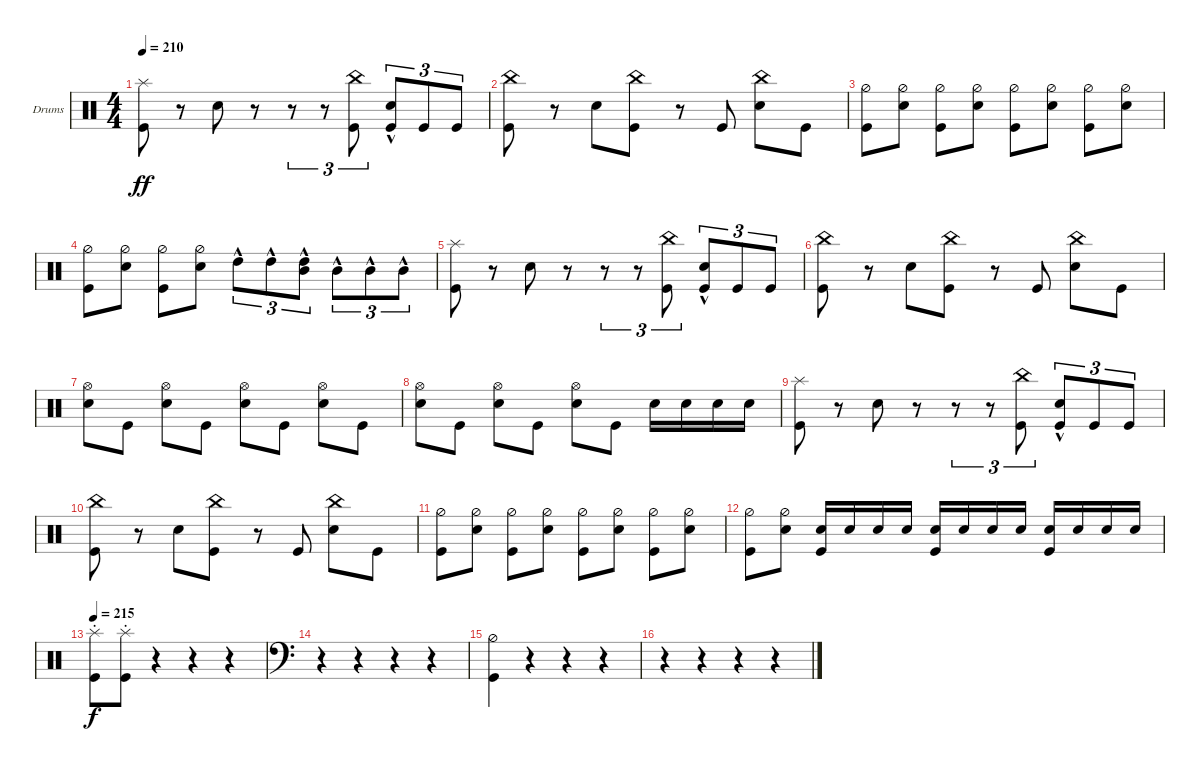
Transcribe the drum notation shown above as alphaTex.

\bracketExtendMode groupsimilarinstruments
\firstSystemTrackNameOrientation horizontal
\otherSystemsTrackNameOrientation horizontal
\track ("Drumkit" "Drums") {instrument percussion}
\staff {score}
\articulation defaults
\ts (4 4)
\tempo 210
\clef neutral
\ks c
("Kick (hit)" "Splash (hit)").8{dy ff} r.8 "Snare (hit) 2".8 r.8 r.8{tu (3 2)} r.8{tu (3 2)} ("Kick (hit)" "China (hit)").8{tu (3 2)} ("Kick (hit)" "Snare (hit) 2"{hac}).8{tu (3 2)} "Kick (hit)".8{tu (3 2)} "Kick (hit)".8{tu (3 2)} |
("Kick (hit)" "China (hit)").8 r.8 "Snare (hit) 2".8 ("Kick (hit)" "China (hit)").8 r.8 "Kick (hit)".8 ("Snare (hit) 2" "China (hit)").8 "Kick (hit)".8 |
("Kick (hit)" "Hi-Hat (half)").8 ("Snare (hit) 2" "Hi-Hat (half)").8 ("Kick (hit)" "Hi-Hat (half)").8 ("Snare (hit) 2" "Hi-Hat (half)").8 ("Kick (hit)" "Hi-Hat (half)").8 ("Snare (hit) 2" "Hi-Hat (half)").8 ("Kick (hit)" "Hi-Hat (half)").8 ("Snare (hit) 2" "Hi-Hat (half)").8 |
("Kick (hit)" "Hi-Hat (half)").8 ("Snare (hit) 2" "Hi-Hat (half)").8 ("Kick (hit)" "Hi-Hat (half)").8 ("Snare (hit) 2" "Hi-Hat (half)").8 "High Tom (hit)"{hac}.8{tu (3 2)} "High Tom (hit)"{hac}.8{tu (3 2)} ("Mid Tom (hit)"{hac} "High Tom (hit)"{hac}).8{tu (3 2)} "Mid Tom (hit)"{hac}.8{tu (3 2)} "Mid Tom (hit)"{hac}.8{tu (3 2)} "Mid Tom (hit)"{hac}.8{tu (3 2)} |
("Kick (hit)" "Splash (hit)").8 r.8 "Snare (hit) 2".8 r.8 r.8{tu (3 2)} r.8{tu (3 2)} ("Kick (hit)" "China (hit)").8{tu (3 2)} ("Kick (hit)" "Snare (hit) 2"{hac}).8{tu (3 2)} "Kick (hit)".8{tu (3 2)} "Kick (hit)".8{tu (3 2)} |
("Kick (hit)" "China (hit)").8 r.8 "Snare (hit) 2".8 ("Kick (hit)" "China (hit)").8 r.8 "Kick (hit)".8 ("Snare (hit) 2" "China (hit)").8 "Kick (hit)".8 |
("Snare (hit) 2" "Hi-Hat (open)").8 "Kick (hit)".8 ("Snare (hit) 2" "Hi-Hat (open)").8 "Kick (hit)".8 ("Snare (hit) 2" "Hi-Hat (open)").8 "Kick (hit)".8 ("Snare (hit) 2" "Hi-Hat (open)").8 "Kick (hit)".8 |
("Snare (hit) 2" "Hi-Hat (open)").8 "Kick (hit)".8 ("Snare (hit) 2" "Hi-Hat (open)").8 "Kick (hit)".8 ("Snare (hit) 2" "Hi-Hat (open)").8 "Kick (hit)".8 "Snare (hit) 2".16 "Snare (hit) 2".16 "Snare (hit) 2".16 "Snare (hit) 2".16 |
("Kick (hit)" "Splash (hit)").8 r.8 "Snare (hit) 2".8 r.8 r.8{tu (3 2)} r.8{tu (3 2)} ("Kick (hit)" "China (hit)").8{tu (3 2)} ("Kick (hit)" "Snare (hit) 2"{hac}).8{tu (3 2)} "Kick (hit)".8{tu (3 2)} "Kick (hit)".8{tu (3 2)} |
("Kick (hit)" "China (hit)").8 r.8 "Snare (hit) 2".8 ("Kick (hit)" "China (hit)").8 r.8 "Kick (hit)".8 ("Snare (hit) 2" "China (hit)").8 "Kick (hit)".8 |
("Kick (hit)" "Hi-Hat (half)").8 ("Snare (hit) 2" "Hi-Hat (half)").8 ("Kick (hit)" "Hi-Hat (half)").8 ("Snare (hit) 2" "Hi-Hat (half)").8 ("Kick (hit)" "Hi-Hat (half)").8 ("Snare (hit) 2" "Hi-Hat (half)").8 ("Kick (hit)" "Hi-Hat (half)").8 ("Snare (hit) 2" "Hi-Hat (half)").8 |
("Kick (hit)" "Hi-Hat (half)").8 ("Snare (hit) 2" "Hi-Hat (half)").8 ("Snare (hit) 2" "Kick (hit)").16 "Snare (hit) 2".16 "Snare (hit) 2".16 "Snare (hit) 2".16 ("Snare (hit) 2" "Kick (hit)").16 "Snare (hit) 2".16 "Snare (hit) 2".16 "Snare (hit) 2".16 ("Snare (hit) 2" "Kick (hit)").16 "Snare (hit) 2".16 "Snare (hit) 2".16 "Snare (hit) 2".16 |
\tempo 215
("Kick (hit)"{st} "Splash (hit)"{st}).8{dy f} ("Kick (hit)"{st} "Splash (hit)"{st}).8 r.4 r.4 r.4 |
\clef f4
r.4 r.4 r.4 r.4 |
("Kick (hit)" "Hi-Hat (half)").4 r.4 r.4 r.4 |
r.4 r.4 r.4 r.4
